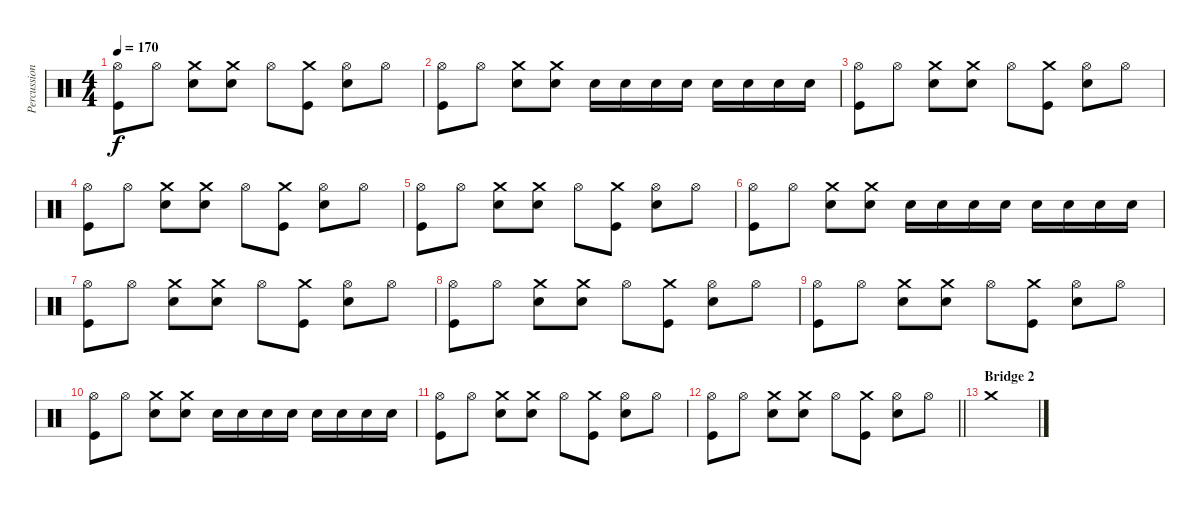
\track ("Percussion" "Percussion") {instrument percussion}
\staff {score}
\articulation defaults
\ts (4 4)
\tempo 170
\clef neutral
\ks c
("Hi-Hat (open)" "Kick (hit)").8{dy f} "Hi-Hat (open)".8 ("Crash medium (hit)" "Snare (hit) 2").8 ("Crash medium (hit)" "Snare (hit) 2").8 "Hi-Hat (open)".8 ("Crash medium (hit)" "Kick (hit)").8 ("Hi-Hat (open)" "Snare (hit) 2").8 "Hi-Hat (open)".8 |
("Hi-Hat (open)" "Kick (hit)").8 "Hi-Hat (open)".8 ("Crash medium (hit)" "Snare (hit) 2").8 ("Crash medium (hit)" "Snare (hit) 2").8 "Snare (hit) 2".16 "Snare (hit) 2".16 "Snare (hit) 2".16 "Snare (hit) 2".16 "Snare (hit) 2".16 "Snare (hit) 2".16 "Snare (hit) 2".16 "Snare (hit) 2".16 |
("Hi-Hat (open)" "Kick (hit)").8 "Hi-Hat (open)".8 ("Crash medium (hit)" "Snare (hit) 2").8 ("Crash medium (hit)" "Snare (hit) 2").8 "Hi-Hat (open)".8 ("Crash medium (hit)" "Kick (hit)").8 ("Hi-Hat (open)" "Snare (hit) 2").8 "Hi-Hat (open)".8 |
("Hi-Hat (open)" "Kick (hit)").8 "Hi-Hat (open)".8 ("Crash medium (hit)" "Snare (hit) 2").8 ("Crash medium (hit)" "Snare (hit) 2").8 "Hi-Hat (open)".8 ("Crash medium (hit)" "Kick (hit)").8 ("Hi-Hat (open)" "Snare (hit) 2").8 "Hi-Hat (open)".8 |
("Hi-Hat (open)" "Kick (hit)").8 "Hi-Hat (open)".8 ("Crash medium (hit)" "Snare (hit) 2").8 ("Crash medium (hit)" "Snare (hit) 2").8 "Hi-Hat (open)".8 ("Crash medium (hit)" "Kick (hit)").8 ("Hi-Hat (open)" "Snare (hit) 2").8 "Hi-Hat (open)".8 |
("Hi-Hat (open)" "Kick (hit)").8 "Hi-Hat (open)".8 ("Crash medium (hit)" "Snare (hit) 2").8 ("Crash medium (hit)" "Snare (hit) 2").8 "Snare (hit) 2".16 "Snare (hit) 2".16 "Snare (hit) 2".16 "Snare (hit) 2".16 "Snare (hit) 2".16 "Snare (hit) 2".16 "Snare (hit) 2".16 "Snare (hit) 2".16 |
("Hi-Hat (open)" "Kick (hit)").8 "Hi-Hat (open)".8 ("Crash medium (hit)" "Snare (hit) 2").8 ("Crash medium (hit)" "Snare (hit) 2").8 "Hi-Hat (open)".8 ("Crash medium (hit)" "Kick (hit)").8 ("Hi-Hat (open)" "Snare (hit) 2").8 "Hi-Hat (open)".8 |
("Hi-Hat (open)" "Kick (hit)").8 "Hi-Hat (open)".8 ("Crash medium (hit)" "Snare (hit) 2").8 ("Crash medium (hit)" "Snare (hit) 2").8 "Hi-Hat (open)".8 ("Crash medium (hit)" "Kick (hit)").8 ("Hi-Hat (open)" "Snare (hit) 2").8 "Hi-Hat (open)".8 |
("Hi-Hat (open)" "Kick (hit)").8 "Hi-Hat (open)".8 ("Crash medium (hit)" "Snare (hit) 2").8 ("Crash medium (hit)" "Snare (hit) 2").8 "Hi-Hat (open)".8 ("Crash medium (hit)" "Kick (hit)").8 ("Hi-Hat (open)" "Snare (hit) 2").8 "Hi-Hat (open)".8 |
("Hi-Hat (open)" "Kick (hit)").8 "Hi-Hat (open)".8 ("Crash medium (hit)" "Snare (hit) 2").8 ("Crash medium (hit)" "Snare (hit) 2").8 "Snare (hit) 2".16 "Snare (hit) 2".16 "Snare (hit) 2".16 "Snare (hit) 2".16 "Snare (hit) 2".16 "Snare (hit) 2".16 "Snare (hit) 2".16 "Snare (hit) 2".16 |
("Hi-Hat (open)" "Kick (hit)").8 "Hi-Hat (open)".8 ("Crash medium (hit)" "Snare (hit) 2").8 ("Crash medium (hit)" "Snare (hit) 2").8 "Hi-Hat (open)".8 ("Crash medium (hit)" "Kick (hit)").8 ("Hi-Hat (open)" "Snare (hit) 2").8 "Hi-Hat (open)".8 |
\barLineRight lightlight
("Hi-Hat (open)" "Kick (hit)").8 "Hi-Hat (open)".8 ("Crash medium (hit)" "Snare (hit) 2").8 ("Crash medium (hit)" "Snare (hit) 2").8 "Hi-Hat (open)".8 ("Crash medium (hit)" "Kick (hit)").8 ("Hi-Hat (open)" "Snare (hit) 2").8 "Hi-Hat (open)".8 |
\section ("" "Bridge 2")
"Crash medium (hit)".1
